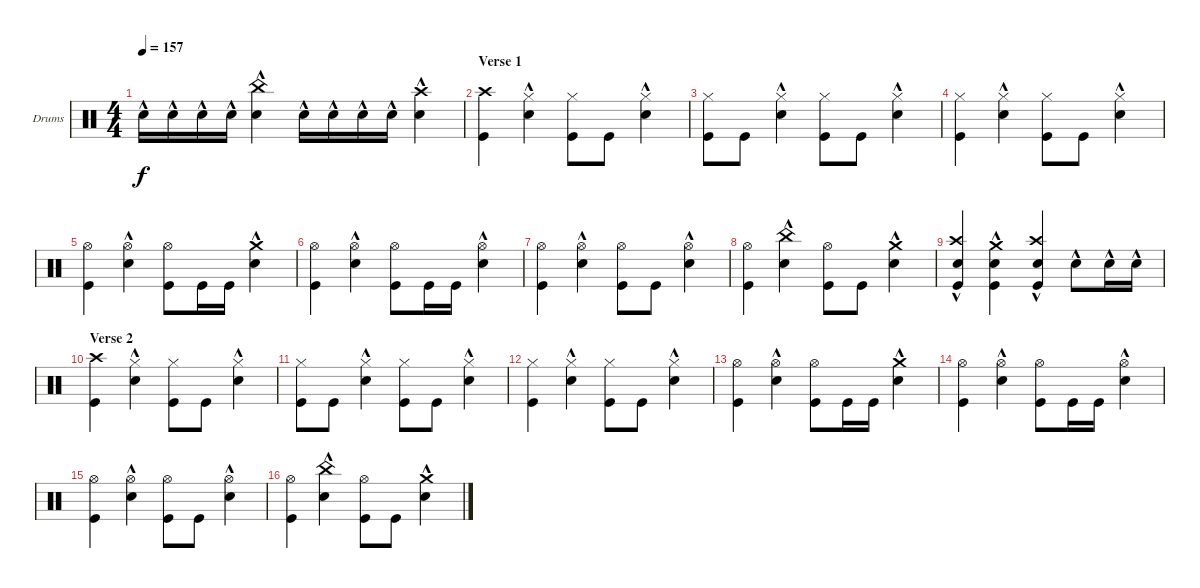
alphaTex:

\defaultSystemsLayout 4
\bracketExtendMode groupsimilarinstruments
\firstSystemTrackNameOrientation horizontal
\otherSystemsTrackNameOrientation horizontal
\track ("Drumkit - Natsu" "Drums") {instrument percussion}
\staff {score}
\articulation defaults
\ts (4 4)
\tempo 157
\clef neutral
\ks c "Snare (hit) 2"{hac}.16{dy f} "Snare (hit) 2"{hac}.16 "Snare (hit) 2"{hac}.16 "Snare (hit) 2"{hac}.16
("Snare (hit) 2"{hac} "China (hit)"{hac}).4 "Snare (hit) 2"{hac}.16 "Snare (hit) 2"{hac}.16 "Snare (hit) 2"{hac}.16 "Snare (hit) 2"{hac}.16 ("Snare (hit) 2"{hac} "Crash high (hit)").4 |
\section ("" "Verse 1")
("Crash high (hit)" "Kick (hit)").4 ("Snare (hit) 2"{hac} "Hi-Hat (closed)").4 ("Kick (hit)" "Hi-Hat (closed)").8 "Kick (hit)".8 ("Snare (hit) 2"{hac} "Hi-Hat (closed)").4 |
("Kick (hit)" "Hi-Hat (closed)").8 "Kick (hit)".8 ("Snare (hit) 2"{hac} "Hi-Hat (closed)").4 ("Kick (hit)" "Hi-Hat (closed)").8 "Kick (hit)".8 ("Snare (hit) 2"{hac} "Hi-Hat (closed)").4 |
("Kick (hit)" "Hi-Hat (closed)").4 ("Snare (hit) 2"{hac} "Hi-Hat (closed)").4 ("Kick (hit)" "Hi-Hat (closed)").8 "Kick (hit)".8 ("Snare (hit) 2"{hac} "Hi-Hat (closed)").4 |
("Kick (hit)" "Hi-Hat (open)").4 ("Snare (hit) 2"{hac} "Hi-Hat (open)").4 ("Kick (hit)" "Hi-Hat (open)").8 "Kick (hit)".16 "Kick (hit)".16 ("Snare (hit) 2"{hac} "Crash medium (hit)"{hac}).4 |
("Kick (hit)" "Hi-Hat (open)").4 ("Snare (hit) 2"{hac} "Hi-Hat (open)").4 ("Kick (hit)" "Hi-Hat (open)").8 "Kick (hit)".16 "Kick (hit)".16 ("Snare (hit) 2"{hac} "Hi-Hat (open)").4 |
("Kick (hit)" "Hi-Hat (open)").4 ("Snare (hit) 2"{hac} "Hi-Hat (open)").4 ("Kick (hit)" "Hi-Hat (open)").8 "Kick (hit)".8 ("Snare (hit) 2"{hac} "Hi-Hat (open)").4 |
("Kick (hit)" "Hi-Hat (open)").4 ("Snare (hit) 2"{hac} "China (hit)"{hac}).4 ("Kick (hit)" "Hi-Hat (open)").8 "Kick (hit)".8 ("Snare (hit) 2"{hac} "Crash medium (hit)"{hac}).4 |
("Snare (hit) 2"{hac} "Kick (hit)" "Crash high (hit)").4 ("Kick (hit)" "Snare (hit) 2"{hac} "Crash medium (hit)"{hac}).4 ("Snare (hit) 2"{hac} "Kick (hit)" "Crash high (hit)").4 "Snare (hit) 2"{hac}.8 "Snare (hit) 2"{hac}.16 "Snare (hit) 2"{hac}.16 |
\section ("" "Verse 2")
("Crash high (hit)" "Kick (hit)").4 ("Snare (hit) 2"{hac} "Hi-Hat (closed)").4 ("Kick (hit)" "Hi-Hat (closed)").8 "Kick (hit)".8 ("Snare (hit) 2"{hac} "Hi-Hat (closed)").4 |
("Kick (hit)" "Hi-Hat (closed)").8 "Kick (hit)".8 ("Snare (hit) 2"{hac} "Hi-Hat (closed)").4 ("Kick (hit)" "Hi-Hat (closed)").8 "Kick (hit)".8 ("Snare (hit) 2"{hac} "Hi-Hat (closed)").4 |
("Kick (hit)" "Hi-Hat (closed)").4 ("Snare (hit) 2"{hac} "Hi-Hat (closed)").4 ("Kick (hit)" "Hi-Hat (closed)").8 "Kick (hit)".8 ("Snare (hit) 2"{hac} "Hi-Hat (closed)").4 |
("Kick (hit)" "Hi-Hat (open)").4 ("Snare (hit) 2"{hac} "Hi-Hat (open)").4 ("Kick (hit)" "Hi-Hat (open)").8 "Kick (hit)".16 "Kick (hit)".16 ("Snare (hit) 2"{hac} "Crash medium (hit)"{hac}).4 |
("Kick (hit)" "Hi-Hat (open)").4 ("Snare (hit) 2"{hac} "Hi-Hat (open)").4 ("Kick (hit)" "Hi-Hat (open)").8 "Kick (hit)".16 "Kick (hit)".16 ("Snare (hit) 2"{hac} "Hi-Hat (open)").4 |
("Kick (hit)" "Hi-Hat (open)").4 ("Snare (hit) 2"{hac} "Hi-Hat (open)").4 ("Kick (hit)" "Hi-Hat (open)").8 "Kick (hit)".8 ("Snare (hit) 2"{hac} "Hi-Hat (open)").4 |
("Kick (hit)" "Hi-Hat (open)").4 ("Snare (hit) 2"{hac} "China (hit)"{hac}).4 ("Kick (hit)" "Hi-Hat (open)").8 "Kick (hit)".8 ("Snare (hit) 2"{hac} "Crash medium (hit)"{hac}).4
